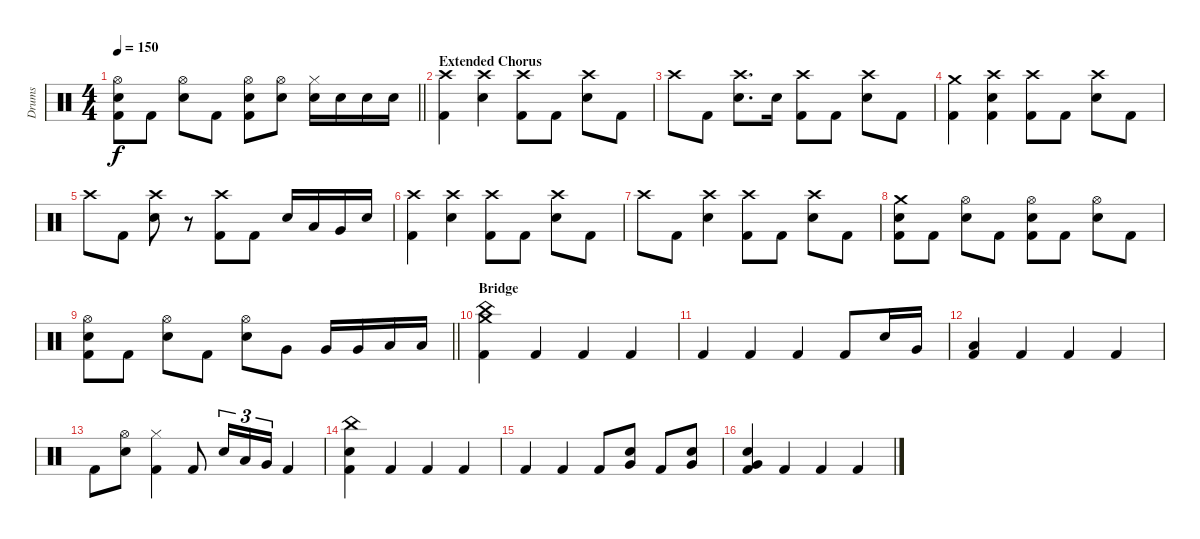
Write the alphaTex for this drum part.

\track ("Drums" "Drums") {instrument percussion}
\staff {score}
\articulation defaults
\ts (4 4)
\tempo 150
\clef neutral
\barLineRight lightlight
\ks c
("Hi-Hat (open)" "Electric Snare (hit)" "Kick (hit) 2").8{dy f} "Kick (hit) 2".8 ("Hi-Hat (open)" "Electric Snare (hit)").8 "Kick (hit) 2".8 ("Hi-Hat (open)" "Electric Snare (hit)" "Kick (hit) 2").8 ("Hi-Hat (open)" "Electric Snare (hit)").8 ("Hi-Hat (closed)" "Electric Snare (hit)").16 "Electric Snare (hit)".16 "Electric Snare (hit)".16 "Electric Snare (hit)".16 |
\section ("" "Extended Chorus")
("Crash high (hit)" "Kick (hit) 2").4 ("Crash high (hit)" "Electric Snare (hit)").4 ("Crash high (hit)" "Kick (hit) 2").8 "Kick (hit) 2".8 ("Crash high (hit)" "Electric Snare (hit)").8 "Kick (hit) 2".8 |
"Crash high (hit)".8 "Kick (hit) 2".8 ("Crash high (hit)" "Electric Snare (hit)").8{d} "Electric Snare (hit)".16 ("Crash high (hit)" "Kick (hit) 2").8 "Kick (hit) 2".8 ("Crash high (hit)" "Electric Snare (hit)").8 "Kick (hit) 2".8 |
("Crash medium (hit)" "Kick (hit) 2").4 ("Crash high (hit)" "Electric Snare (hit)" "Kick (hit) 2").4 ("Crash high (hit)" "Kick (hit) 2").8 "Kick (hit) 2".8 ("Crash high (hit)" "Electric Snare (hit)").8 "Kick (hit) 2".8 |
"Crash high (hit)".8 "Kick (hit) 2".8 ("Crash high (hit)" "Electric Snare (hit)").8 r.8 ("Crash high (hit)" "Kick (hit) 2").8 "Kick (hit) 2".8 "Electric Snare (hit)".16 "Low Tom (hit)".16 "Very Low Tom (hit)".16 "Electric Snare (hit)".16 |
("Crash high (hit)" "Kick (hit) 2").4 ("Crash high (hit)" "Electric Snare (hit)").4 ("Crash high (hit)" "Kick (hit) 2").8 "Kick (hit) 2".8 ("Crash high (hit)" "Electric Snare (hit)").8 "Kick (hit) 2".8 |
"Crash high (hit)".8 "Kick (hit) 2".8 ("Crash high (hit)" "Electric Snare (hit)").4 ("Crash high (hit)" "Kick (hit) 2").8 "Kick (hit) 2".8 ("Crash high (hit)" "Electric Snare (hit)").8 "Kick (hit) 2".8 |
("Crash medium (hit)" "Electric Snare (hit)" "Kick (hit) 2").8 "Kick (hit) 2".8 ("Hi-Hat (open)" "Electric Snare (hit)").8 "Kick (hit) 2".8 ("Hi-Hat (open)" "Electric Snare (hit)" "Kick (hit) 2").8 "Kick (hit) 2".8 ("Hi-Hat (open)" "Electric Snare (hit)").8 "Kick (hit) 2".8 |
\barLineRight lightlight
("Hi-Hat (open)" "Electric Snare (hit)" "Kick (hit) 2").8 "Kick (hit) 2".8 ("Hi-Hat (open)" "Electric Snare (hit)").8 "Kick (hit) 2".8 ("Hi-Hat (open)" "Electric Snare (hit)").8 "Very Low Tom (hit)".8 "Very Low Tom (hit)".16 "Very Low Tom (hit)".16 "Low Floor Tom (hit)".16 "Low Floor Tom (hit)".16 |
\section ("" "Bridge")
("China (hit)" "Crash medium (hit)" "Kick (hit) 2").4 "Kick (hit) 2".4 "Kick (hit) 2".4 "Kick (hit) 2".4 |
"Kick (hit) 2".4 "Kick (hit) 2".4 "Kick (hit) 2".4 "Kick (hit) 2".8 "Electric Snare (hit)".16 "Very Low Tom (hit)".16 |
("Low Floor Tom (hit)" "Kick (hit) 2").4 "Kick (hit) 2".4 "Kick (hit) 2".4 "Kick (hit) 2".4 |
"Kick (hit) 2".8 ("Hi-Hat (open)" "Electric Snare (hit)").8 ("Hi-Hat (closed)" "Kick (hit) 2").4 "Kick (hit) 2".8 "Electric Snare (hit)".16{tu (3 2)} "Low Tom (hit)".16{tu (3 2)} "Very Low Tom (hit)".16{tu (3 2)} "Kick (hit) 2".4 |
("China (hit)" "Electric Snare (hit)" "Kick (hit) 2").4 "Kick (hit) 2".4 "Kick (hit) 2".4 "Kick (hit) 2".4 |
"Kick (hit) 2".4 "Kick (hit) 2".4 "Kick (hit) 2".8 ("Electric Snare (hit)" "Very Low Tom (hit)").8 "Kick (hit) 2".8 ("Electric Snare (hit)" "Very Low Tom (hit)").8 |
("Electric Snare (hit)" "Very Low Tom (hit)" "Kick (hit) 2").4 "Kick (hit) 2".4 "Kick (hit) 2".4 "Kick (hit) 2".4
